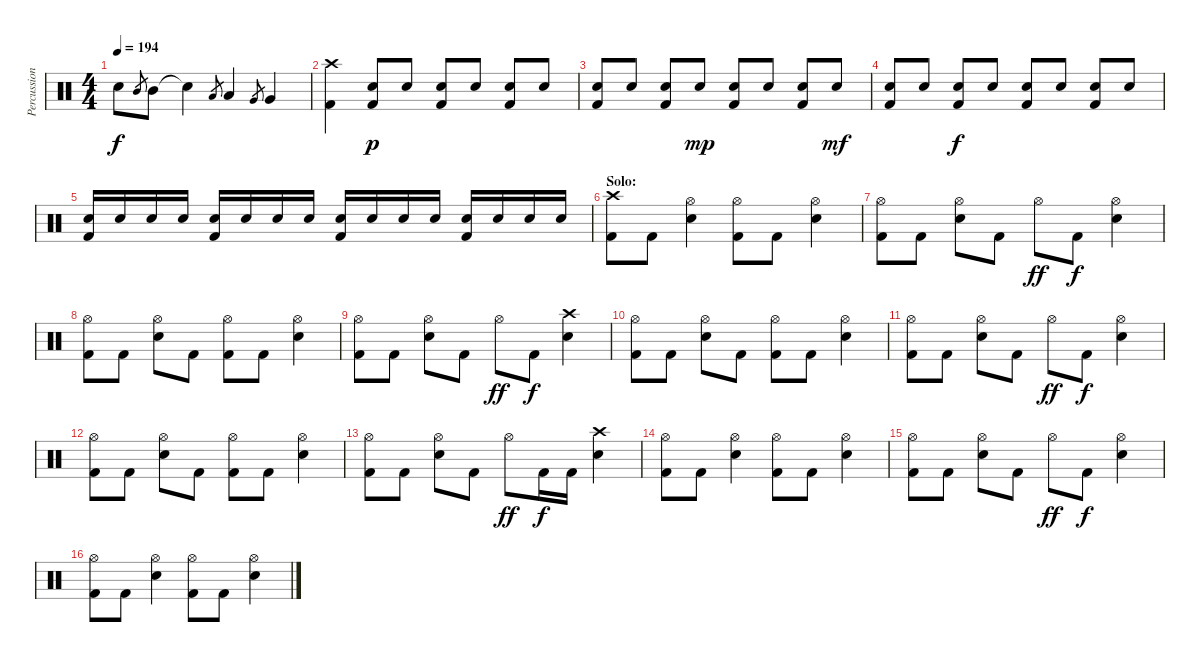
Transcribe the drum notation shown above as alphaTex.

\track ("Percussion" "Percussion") {instrument percussion}
\staff {score}
\articulation defaults
\ts (4 4)
\tempo 194
\clef neutral
\ks c "Snare (hit)"{t}.8{dy f} "Mid Tom (hit)".8{gr} "Mid Tom (hit)".8 "Snare (hit)"{t}.4 "Low Tom (hit)".8{gr} "Low Tom (hit)".4 "Very Low Tom (hit)".8{gr} "Very Low Tom (hit)".4
|
("Crash high (hit)" "Kick (hit) 2").4 ("Electric Snare (hit)" "Kick (hit) 2").8{dy p} "Electric Snare (hit)".8 ("Electric Snare (hit)" "Kick (hit) 2").8 "Electric Snare (hit)".8 ("Electric Snare (hit)" "Kick (hit) 2").8 "Electric Snare (hit)".8 |
("Electric Snare (hit)" "Kick (hit) 2").8 "Electric Snare (hit)".8 ("Electric Snare (hit)" "Kick (hit) 2").8 "Electric Snare (hit)".8{dy mp} ("Electric Snare (hit)" "Kick (hit) 2").8 "Electric Snare (hit)".8 ("Electric Snare (hit)" "Kick (hit) 2").8 "Electric Snare (hit)".8{dy mf} |
("Electric Snare (hit)" "Kick (hit) 2").8 "Electric Snare (hit)".8 ("Electric Snare (hit)" "Kick (hit) 2").8{dy f} "Electric Snare (hit)".8 ("Electric Snare (hit)" "Kick (hit) 2").8 "Electric Snare (hit)".8 ("Electric Snare (hit)" "Kick (hit) 2").8 "Electric Snare (hit)".8 |
("Electric Snare (hit)" "Kick (hit) 2").16 "Electric Snare (hit)".16 "Electric Snare (hit)".16 "Electric Snare (hit)".16 ("Electric Snare (hit)" "Kick (hit) 2").16 "Electric Snare (hit)".16 "Electric Snare (hit)".16 "Electric Snare (hit)".16 ("Electric Snare (hit)" "Kick (hit) 2").16 "Electric Snare (hit)".16 "Electric Snare (hit)".16 "Electric Snare (hit)".16 ("Electric Snare (hit)" "Kick (hit) 2").16 "Electric Snare (hit)".16 "Electric Snare (hit)".16 "Electric Snare (hit)".16 |
\section ("" "Solo:")
("Crash high (hit)" "Kick (hit) 2").8 "Kick (hit) 2".8 ("Hi-Hat (open)" "Electric Snare (hit)").4 ("Hi-Hat (open)" "Kick (hit) 2").8 "Kick (hit) 2".8 ("Hi-Hat (open)" "Electric Snare (hit)").4 |
("Hi-Hat (open)" "Kick (hit) 2").8 "Kick (hit) 2".8 ("Hi-Hat (open)" "Electric Snare (hit)").8 "Kick (hit) 2".8 "Hi-Hat (open)".8{dy ff} "Kick (hit) 2".8{dy f} ("Hi-Hat (open)" "Electric Snare (hit)").4 |
("Hi-Hat (open)" "Kick (hit) 2").8 "Kick (hit) 2".8 ("Hi-Hat (open)" "Electric Snare (hit)").8 "Kick (hit) 2".8 ("Hi-Hat (open)" "Kick (hit) 2").8 "Kick (hit) 2".8 ("Hi-Hat (open)" "Electric Snare (hit)").4 |
("Hi-Hat (open)" "Kick (hit) 2").8 "Kick (hit) 2".8 ("Hi-Hat (open)" "Electric Snare (hit)").8 "Kick (hit) 2".8 "Hi-Hat (open)".8{dy ff} "Kick (hit) 2".8{dy f} ("Crash high (hit)" "Electric Snare (hit)").4 |
("Hi-Hat (open)" "Kick (hit) 2").8 "Kick (hit) 2".8 ("Hi-Hat (open)" "Electric Snare (hit)").8 "Kick (hit) 2".8 ("Hi-Hat (open)" "Kick (hit) 2").8 "Kick (hit) 2".8 ("Hi-Hat (open)" "Electric Snare (hit)").4 |
("Hi-Hat (open)" "Kick (hit) 2").8 "Kick (hit) 2".8 ("Hi-Hat (open)" "Electric Snare (hit)").8 "Kick (hit) 2".8 "Hi-Hat (open)".8{dy ff} "Kick (hit) 2".8{dy f} ("Hi-Hat (open)" "Electric Snare (hit)").4 |
("Hi-Hat (open)" "Kick (hit) 2").8 "Kick (hit) 2".8 ("Hi-Hat (open)" "Electric Snare (hit)").8 "Kick (hit) 2".8 ("Hi-Hat (open)" "Kick (hit) 2").8 "Kick (hit) 2".8 ("Hi-Hat (open)" "Electric Snare (hit)").4 |
("Hi-Hat (open)" "Kick (hit) 2").8 "Kick (hit) 2".8 ("Hi-Hat (open)" "Electric Snare (hit)").8 "Kick (hit) 2".8 "Hi-Hat (open)".8{dy ff} "Kick (hit) 2".16{dy f} "Kick (hit) 2".16 ("Crash high (hit)" "Electric Snare (hit)").4 |
("Hi-Hat (open)" "Kick (hit) 2").8 "Kick (hit) 2".8 ("Hi-Hat (open)" "Electric Snare (hit)").4 ("Hi-Hat (open)" "Kick (hit) 2").8 "Kick (hit) 2".8 ("Hi-Hat (open)" "Electric Snare (hit)").4 |
("Hi-Hat (open)" "Kick (hit) 2").8 "Kick (hit) 2".8 ("Hi-Hat (open)" "Electric Snare (hit)").8 "Kick (hit) 2".8 "Hi-Hat (open)".8{dy ff} "Kick (hit) 2".8{dy f} ("Hi-Hat (open)" "Electric Snare (hit)").4 |
("Hi-Hat (open)" "Kick (hit) 2").8 "Kick (hit) 2".8 ("Hi-Hat (open)" "Electric Snare (hit)").4 ("Hi-Hat (open)" "Kick (hit) 2").8 "Kick (hit) 2".8 ("Hi-Hat (open)" "Electric Snare (hit)").4
